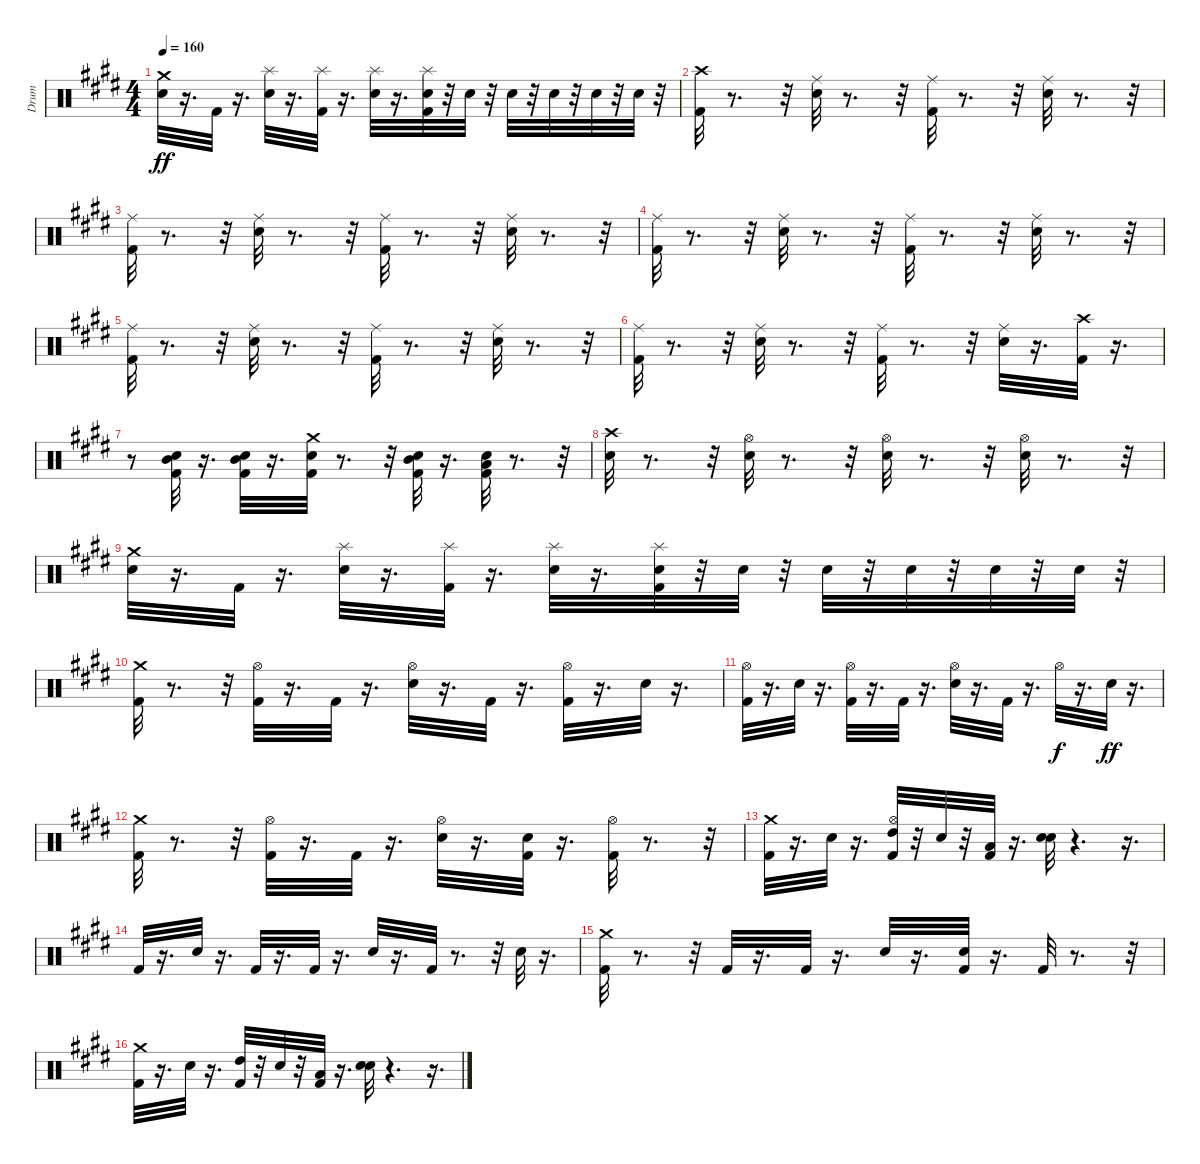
\track ("Drum" "Drum") {instrument percussion}
\staff {score}
\articulation defaults
\ts (4 4)
\tempo 160
\clef neutral
\ks e
("Crash medium (hit)" "Electric Snare (hit)").32{dy ff} r.16{d} "Kick (hit) 2".32 r.16{d} ("Splash (hit)" "Electric Snare (hit)").32 r.16{d} ("Splash (hit)" "Kick (hit) 2").32 r.16{d} ("Splash (hit)" "Electric Snare (hit)").32 r.16{d} ("Splash (hit)" "Kick (hit) 2" "Electric Snare (hit)").32 r.32 "Electric Snare (hit)".32 r.32 "Electric Snare (hit)".32 r.32 "Electric Snare (hit)".32 r.32 "Electric Snare (hit)".32 r.32 "Electric Snare (hit)".32 r.32 |
("Crash high (hit)" "Kick (hit) 2").32 r.8{d} r.32 ("Electric Snare (hit)" "Ride (middle)").32 r.8{d} r.32 ("Kick (hit) 2" "Ride (middle)").32 r.8{d} r.32 ("Electric Snare (hit)" "Ride (middle)").32 r.8{d} r.32 |
("Kick (hit) 2" "Ride (middle)").32 r.8{d} r.32 ("Electric Snare (hit)" "Ride (middle)").32 r.8{d} r.32 ("Kick (hit) 2" "Ride (middle)").32 r.8{d} r.32 ("Electric Snare (hit)" "Ride (middle)").32 r.8{d} r.32 |
("Kick (hit) 2" "Ride (middle)").32 r.8{d} r.32 ("Electric Snare (hit)" "Ride (middle)").32 r.8{d} r.32 ("Kick (hit) 2" "Ride (middle)").32 r.8{d} r.32 ("Electric Snare (hit)" "Ride (middle)").32 r.8{d} r.32 |
("Kick (hit) 2" "Ride (middle)").32 r.8{d} r.32 ("Electric Snare (hit)" "Ride (middle)").32 r.8{d} r.32 ("Kick (hit) 2" "Ride (middle)").32 r.8{d} r.32 ("Electric Snare (hit)" "Ride (middle)").32 r.8{d} r.32 |
("Kick (hit) 2" "Ride (middle)").32 r.8{d} r.32 ("Electric Snare (hit)" "Ride (middle)").32 r.8{d} r.32 ("Kick (hit) 2" "Ride (middle)").32 r.8{d} r.32 ("Electric Snare (hit)" "Ride (middle)").32 r.16{d} ("Crash high (hit)" "Kick (hit) 2").32 r.16{d} |
r.8 ("Mid Tom (hit)" "Kick (hit) 2" "Electric Snare (hit)").32 r.16{d} ("Mid Tom (hit)" "Kick (hit) 2" "Electric Snare (hit)").32 r.16{d} ("Crash medium (hit)" "Kick (hit) 2" "Electric Snare (hit)").32 r.8{d} r.32 ("Mid Tom (hit)" "Kick (hit) 2" "Electric Snare (hit)").32 r.16{d} ("Kick (hit) 2" "Low Tom (hit)" "Electric Snare (hit)").32 r.8{d} r.32 |
("Crash high (hit)" "Electric Snare (hit)").32 r.8{d} r.32 ("Electric Snare (hit)" "Hi-Hat (open)").32 r.8{d} r.32 ("Electric Snare (hit)" "Hi-Hat (open)").32 r.8{d} r.32 ("Electric Snare (hit)" "Hi-Hat (open)").32 r.8{d} r.32 |
("Crash medium (hit)" "Electric Snare (hit)").32 r.16{d} "Kick (hit) 2".32 r.16{d} ("Splash (hit)" "Electric Snare (hit)").32 r.16{d} ("Splash (hit)" "Kick (hit) 2").32 r.16{d} ("Splash (hit)" "Electric Snare (hit)").32 r.16{d} ("Splash (hit)" "Kick (hit) 2" "Electric Snare (hit)").32 r.32 "Electric Snare (hit)".32 r.32 "Electric Snare (hit)".32 r.32 "Electric Snare (hit)".32 r.32 "Electric Snare (hit)".32 r.32 "Electric Snare (hit)".32 r.32 |
("Crash medium (hit)" "Kick (hit) 2").32 r.8{d} r.32 ("Kick (hit) 2" "Hi-Hat (open)").32 r.16{d} "Kick (hit) 2".32 r.16{d} ("Electric Snare (hit)" "Hi-Hat (open)").32 r.16{d} "Kick (hit) 2".32 r.16{d} ("Kick (hit) 2" "Hi-Hat (open)").32 r.16{d} "Electric Snare (hit)".32 r.16{d} |
("Kick (hit) 2" "Hi-Hat (open)").32 r.16{d} "Electric Snare (hit)".32 r.16{d} ("Kick (hit) 2" "Hi-Hat (open)").32 r.16{d} "Kick (hit) 2".32 r.16{d} ("Electric Snare (hit)" "Hi-Hat (open)").32 r.16{d} "Kick (hit) 2".32 r.16{d} "Hi-Hat (open)".32{dy f} r.16{d} "Electric Snare (hit)".32{dy ff} r.16{d} |
("Crash medium (hit)" "Kick (hit) 2").32 r.8{d} r.32 ("Kick (hit) 2" "Hi-Hat (open)").32 r.16{d} "Kick (hit) 2".32 r.16{d} ("Electric Snare (hit)" "Hi-Hat (open)").32 r.16{d} ("Kick (hit) 2" "Electric Snare (hit)").32 r.16{d} ("Kick (hit) 2" "Hi-Hat (open)").32 r.8{d} r.32 |
("Crash medium (hit)" "Kick (hit) 2").32 r.16{d} "Electric Snare (hit)".32 r.16{d} ("High Tom (hit)" "Kick (hit) 2" "Hi-Hat (open)").32 r.32 "Electric Snare (hit)".32 r.32 ("Kick (hit) 2" "Low Tom (hit)").32 r.16{d} ("Electric Snare (hit)" "Electric Snare (hit)").32 r.4{d} r.16{d} |
"Kick (hit) 2".32 r.16{d} "Electric Snare (hit)".32 r.16{d} "Kick (hit) 2".32 r.16{d} "Kick (hit) 2".32 r.16{d} "Electric Snare (hit)".32 r.16{d} "Kick (hit) 2".32 r.8{d} r.32 "Electric Snare (hit)".32 r.16{d} |
("Crash medium (hit)" "Kick (hit) 2").32 r.8{d} r.32 "Kick (hit) 2".32 r.16{d} "Kick (hit) 2".32 r.16{d} "Electric Snare (hit)".32 r.16{d} ("Kick (hit) 2" "Electric Snare (hit)").32 r.16{d} "Kick (hit) 2".32 r.8{d} r.32 |
("Crash medium (hit)" "Kick (hit) 2").32 r.16{d} "Electric Snare (hit)".32 r.16{d} ("High Tom (hit)" "Kick (hit) 2").32 r.32 "Electric Snare (hit)".32 r.32 ("Kick (hit) 2" "Low Tom (hit)").32 r.16{d} ("Electric Snare (hit)" "Electric Snare (hit)").32 r.4{d} r.16{d}
